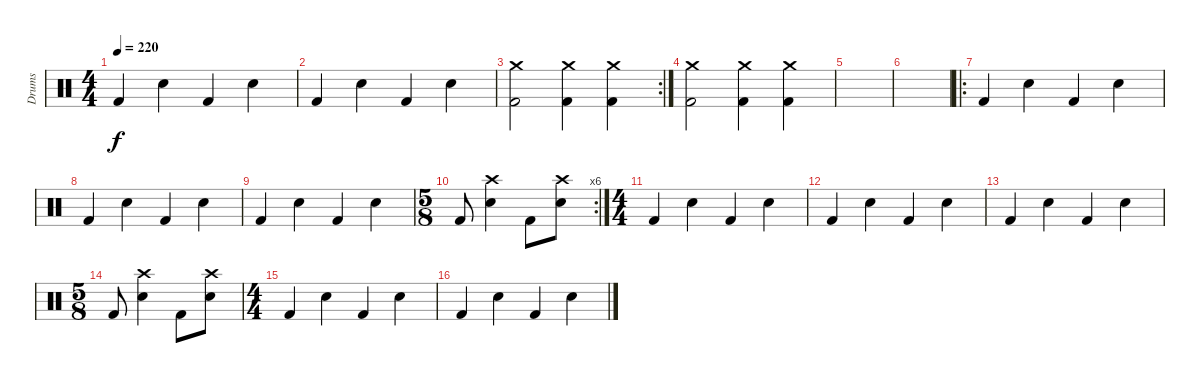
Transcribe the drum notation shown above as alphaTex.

\track ("Drums" "Drums") {instrument percussion}
\staff {score}
\articulation defaults
\ts (4 4)
\tempo 220
\clef neutral
\ks c "Kick (hit) 2".4{dy f} "Electric Snare (hit)".4 "Kick (hit) 2".4 "Electric Snare (hit)".4
|
"Kick (hit) 2".4 "Electric Snare (hit)".4 "Kick (hit) 2".4 "Electric Snare (hit)".4 |
\rc 2
("Crash medium (hit)" "Kick (hit) 2").2 ("Crash medium (hit)" "Kick (hit) 2").4 ("Kick (hit) 2" "Crash medium (hit)").4 |
("Kick (hit) 2" "Crash medium (hit)").2 ("Kick (hit) 2" "Crash medium (hit)").4 ("Kick (hit) 2" "Crash medium (hit)").4 |
|
|
\ro "Kick (hit) 2".4 "Electric Snare (hit)".4 "Kick (hit) 2".4 "Electric Snare (hit)".4
|
"Kick (hit) 2".4 "Electric Snare (hit)".4 "Kick (hit) 2".4 "Electric Snare (hit)".4 |
"Kick (hit) 2".4 "Electric Snare (hit)".4 "Kick (hit) 2".4 "Electric Snare (hit)".4 |
\rc 6
\ts (5 8)
"Kick (hit) 2".8 ("Electric Snare (hit)" "Crash high (hit)").4 "Kick (hit) 2".8 ("Crash high (hit)" "Electric Snare (hit)").8 |
\ts (4 4)
"Kick (hit) 2".4 "Electric Snare (hit)".4 "Kick (hit) 2".4 "Electric Snare (hit)".4 |
"Kick (hit) 2".4 "Electric Snare (hit)".4 "Kick (hit) 2".4 "Electric Snare (hit)".4 |
"Kick (hit) 2".4 "Electric Snare (hit)".4 "Kick (hit) 2".4 "Electric Snare (hit)".4 |
\ts (5 8)
"Kick (hit) 2".8 ("Electric Snare (hit)" "Crash high (hit)").4 "Kick (hit) 2".8 ("Crash high (hit)" "Electric Snare (hit)").8 |
\ts (4 4)
"Kick (hit) 2".4 "Electric Snare (hit)".4 "Kick (hit) 2".4 "Electric Snare (hit)".4 |
"Kick (hit) 2".4 "Electric Snare (hit)".4 "Kick (hit) 2".4 "Electric Snare (hit)".4
